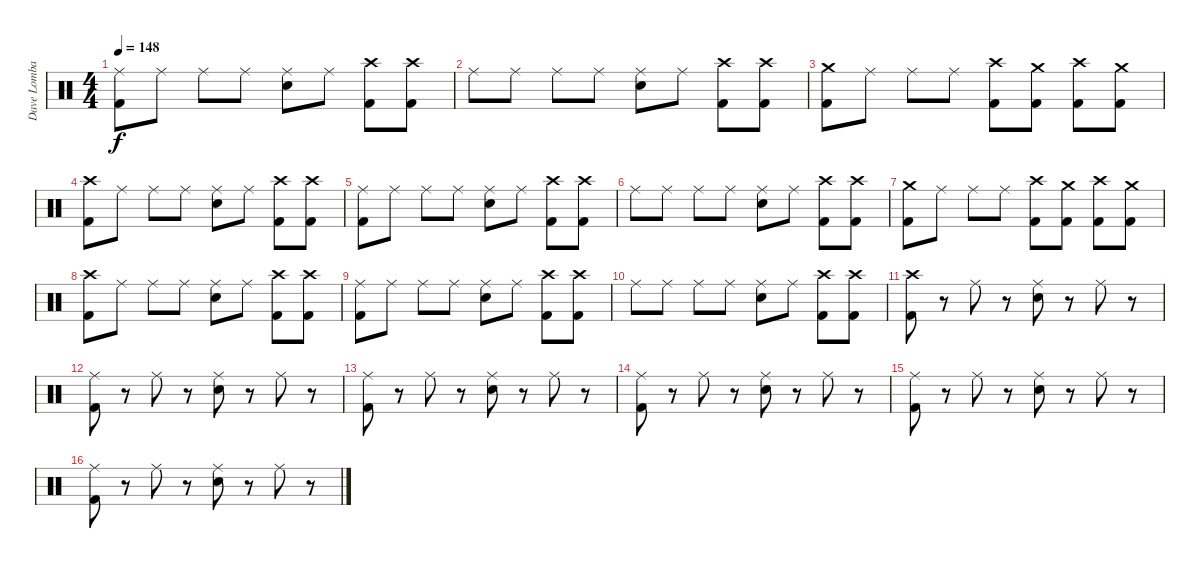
\track ("Dave Lombardo" "Dave Lomba") {instrument percussion}
\staff {score}
\articulation defaults
\ts (4 4)
\tempo 148
\clef neutral
\ks c
("Kick (hit) 2" "Ride (middle)").8{dy f} "Ride (middle)".8 "Ride (middle)".8 "Ride (middle)".8 ("Electric Snare (hit)" "Ride (middle)").8 "Ride (middle)".8 ("Kick (hit) 2" "Crash high (hit)").8 ("Crash high (hit)" "Kick (hit) 2").8 |
"Ride (middle)".8 "Ride (middle)".8 "Ride (middle)".8 "Ride (middle)".8 ("Electric Snare (hit)" "Ride (middle)").8 "Ride (middle)".8 ("Kick (hit) 2" "Crash high (hit)").8 ("Crash high (hit)" "Kick (hit) 2").8 |
("Crash medium (hit)" "Kick (hit) 2").8 "Ride (middle)".8 "Ride (middle)".8 "Ride (middle)".8 ("Kick (hit) 2" "Crash high (hit)").8 ("Kick (hit) 2" "Crash medium (hit)").8 ("Kick (hit) 2" "Crash high (hit)").8 ("Kick (hit) 2" "Crash medium (hit)").8 |
("Kick (hit) 2" "Crash high (hit)").8 "Ride (middle)".8 "Ride (middle)".8 "Ride (middle)".8 ("Electric Snare (hit)" "Ride (middle)").8 "Ride (middle)".8 ("Kick (hit) 2" "Crash high (hit)").8 ("Crash high (hit)" "Kick (hit) 2").8 |
("Kick (hit) 2" "Ride (middle)").8 "Ride (middle)".8 "Ride (middle)".8 "Ride (middle)".8 ("Electric Snare (hit)" "Ride (middle)").8 "Ride (middle)".8 ("Kick (hit) 2" "Crash high (hit)").8 ("Crash high (hit)" "Kick (hit) 2").8 |
"Ride (middle)".8 "Ride (middle)".8 "Ride (middle)".8 "Ride (middle)".8 ("Electric Snare (hit)" "Ride (middle)").8 "Ride (middle)".8 ("Kick (hit) 2" "Crash high (hit)").8 ("Crash high (hit)" "Kick (hit) 2").8 |
("Crash medium (hit)" "Kick (hit) 2").8 "Ride (middle)".8 "Ride (middle)".8 "Ride (middle)".8 ("Kick (hit) 2" "Crash high (hit)").8 ("Kick (hit) 2" "Crash medium (hit)").8 ("Kick (hit) 2" "Crash high (hit)").8 ("Kick (hit) 2" "Crash medium (hit)").8 |
("Kick (hit) 2" "Crash high (hit)").8 "Ride (middle)".8 "Ride (middle)".8 "Ride (middle)".8 ("Electric Snare (hit)" "Ride (middle)").8 "Ride (middle)".8 ("Kick (hit) 2" "Crash high (hit)").8 ("Crash high (hit)" "Kick (hit) 2").8 |
("Kick (hit) 2" "Ride (middle)").8 "Ride (middle)".8 "Ride (middle)".8 "Ride (middle)".8 ("Electric Snare (hit)" "Ride (middle)").8 "Ride (middle)".8 ("Kick (hit) 2" "Crash high (hit)").8 ("Crash high (hit)" "Kick (hit) 2").8 |
"Ride (middle)".8 "Ride (middle)".8 "Ride (middle)".8 "Ride (middle)".8 ("Electric Snare (hit)" "Ride (middle)").8 "Ride (middle)".8 ("Kick (hit) 2" "Crash high (hit)").8 ("Crash high (hit)" "Kick (hit) 2").8 |
("Crash high (hit)" "Kick (hit) 2").8 r.8 "Ride (middle)".8 r.8 ("Electric Snare (hit)" "Ride (middle)").8 r.8 "Ride (middle)".8 r.8 |
("Kick (hit) 2" "Ride (middle)").8 r.8 "Ride (middle)".8 r.8 ("Electric Snare (hit)" "Ride (middle)").8 r.8 "Ride (middle)".8 r.8 |
("Kick (hit) 2" "Ride (middle)").8 r.8 "Ride (middle)".8 r.8 ("Electric Snare (hit)" "Ride (middle)").8 r.8 "Ride (middle)".8 r.8 |
("Kick (hit) 2" "Ride (middle)").8 r.8 "Ride (middle)".8 r.8 ("Electric Snare (hit)" "Ride (middle)").8 r.8 "Ride (middle)".8 r.8 |
("Kick (hit) 2" "Ride (middle)").8 r.8 "Ride (middle)".8 r.8 ("Electric Snare (hit)" "Ride (middle)").8 r.8 "Ride (middle)".8 r.8 |
("Kick (hit) 2" "Ride (middle)").8 r.8 "Ride (middle)".8 r.8 ("Electric Snare (hit)" "Ride (middle)").8 r.8 "Ride (middle)".8 r.8
